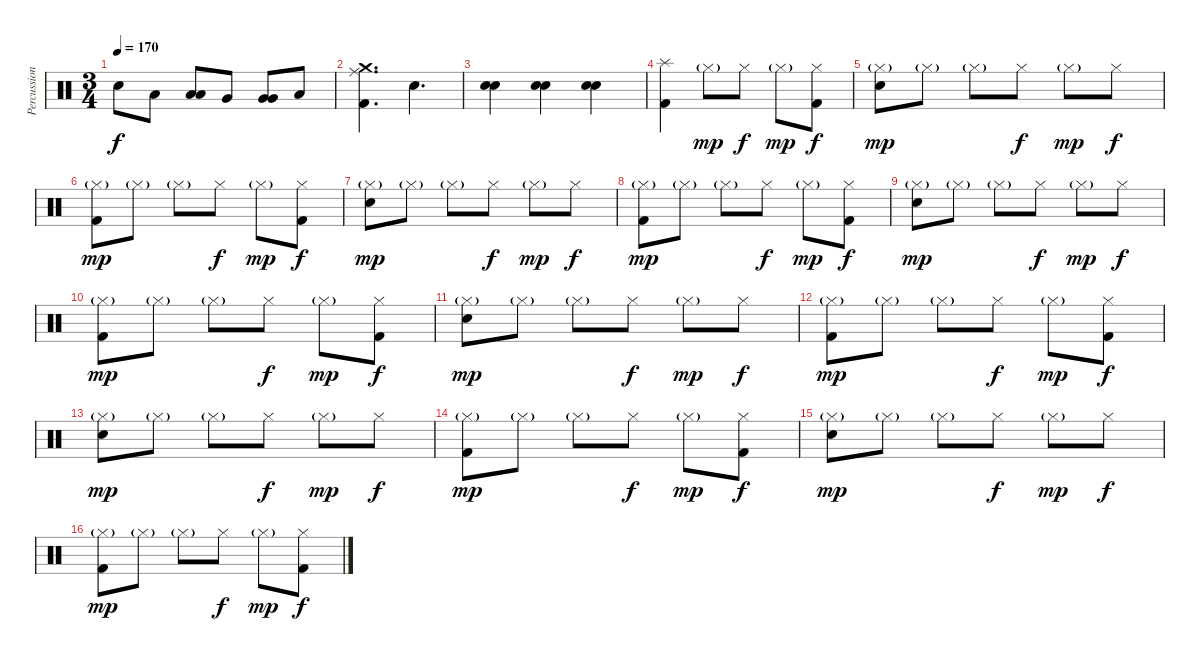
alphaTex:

\track ("Percussion" "Percussion") {instrument percussion}
\staff {score}
\articulation defaults
\ts (3 4)
\tempo 170
\clef neutral
\ks c "Electric Snare (hit)".8{dy f} "Low Tom (hit)".8
("Low Tom (hit)" "Low Tom (hit)").8{bd 240} "Very Low Tom (hit)".8 ("Very Low Tom (hit)" "Very Low Tom (hit)").8{bd 240} "Low Floor Tom (hit)".8 |
("Ride (middle)" "Crash medium (hit)" "Kick (hit) 2").4{d} "Electric Snare (hit)".4{d} |
("Electric Snare (hit)" "Electric Snare (hit)").4{bd 240} ("Electric Snare (hit)" "Electric Snare (hit)").4{bd 240} ("Electric Snare (hit)" "Electric Snare (hit)").4{bd 240} |
("Splash (hit)" "Kick (hit) 2").4 "Hi-Hat (closed)"{g}.8{dy mp} "Hi-Hat (closed)".8{dy f} "Hi-Hat (closed)"{g}.8{dy mp} ("Hi-Hat (closed)" "Kick (hit) 2").8{dy f} |
("Hi-Hat (closed)"{g} "Electric Snare (hit)").8{dy mp} "Hi-Hat (closed)"{g}.8 "Hi-Hat (closed)"{g}.8 "Hi-Hat (closed)".8{dy f} "Hi-Hat (closed)"{g}.8{dy mp} "Hi-Hat (closed)".8{dy f} |
("Hi-Hat (closed)"{g} "Kick (hit) 2").8{dy mp} "Hi-Hat (closed)"{g}.8 "Hi-Hat (closed)"{g}.8 "Hi-Hat (closed)".8{dy f} "Hi-Hat (closed)"{g}.8{dy mp} ("Hi-Hat (closed)" "Kick (hit) 2").8{dy f} |
("Hi-Hat (closed)"{g} "Electric Snare (hit)").8{dy mp} "Hi-Hat (closed)"{g}.8 "Hi-Hat (closed)"{g}.8 "Hi-Hat (closed)".8{dy f} "Hi-Hat (closed)"{g}.8{dy mp} "Hi-Hat (closed)".8{dy f} |
("Hi-Hat (closed)"{g} "Kick (hit) 2").8{dy mp} "Hi-Hat (closed)"{g}.8 "Hi-Hat (closed)"{g}.8 "Hi-Hat (closed)".8{dy f} "Hi-Hat (closed)"{g}.8{dy mp} ("Hi-Hat (closed)" "Kick (hit) 2").8{dy f} |
("Hi-Hat (closed)"{g} "Electric Snare (hit)").8{dy mp} "Hi-Hat (closed)"{g}.8 "Hi-Hat (closed)"{g}.8 "Hi-Hat (closed)".8{dy f} "Hi-Hat (closed)"{g}.8{dy mp} "Hi-Hat (closed)".8{dy f} |
("Hi-Hat (closed)"{g} "Kick (hit) 2").8{dy mp} "Hi-Hat (closed)"{g}.8 "Hi-Hat (closed)"{g}.8 "Hi-Hat (closed)".8{dy f} "Hi-Hat (closed)"{g}.8{dy mp} ("Hi-Hat (closed)" "Kick (hit) 2").8{dy f} |
("Hi-Hat (closed)"{g} "Electric Snare (hit)").8{dy mp} "Hi-Hat (closed)"{g}.8 "Hi-Hat (closed)"{g}.8 "Hi-Hat (closed)".8{dy f} "Hi-Hat (closed)"{g}.8{dy mp} "Hi-Hat (closed)".8{dy f} |
("Hi-Hat (closed)"{g} "Kick (hit) 2").8{dy mp} "Hi-Hat (closed)"{g}.8 "Hi-Hat (closed)"{g}.8 "Hi-Hat (closed)".8{dy f} "Hi-Hat (closed)"{g}.8{dy mp} ("Hi-Hat (closed)" "Kick (hit) 2").8{dy f} |
("Hi-Hat (closed)"{g} "Electric Snare (hit)").8{dy mp} "Hi-Hat (closed)"{g}.8 "Hi-Hat (closed)"{g}.8 "Hi-Hat (closed)".8{dy f} "Hi-Hat (closed)"{g}.8{dy mp} "Hi-Hat (closed)".8{dy f} |
("Hi-Hat (closed)"{g} "Kick (hit) 2").8{dy mp} "Hi-Hat (closed)"{g}.8 "Hi-Hat (closed)"{g}.8 "Hi-Hat (closed)".8{dy f} "Hi-Hat (closed)"{g}.8{dy mp} ("Hi-Hat (closed)" "Kick (hit) 2").8{dy f} |
("Hi-Hat (closed)"{g} "Electric Snare (hit)").8{dy mp} "Hi-Hat (closed)"{g}.8 "Hi-Hat (closed)"{g}.8 "Hi-Hat (closed)".8{dy f} "Hi-Hat (closed)"{g}.8{dy mp} "Hi-Hat (closed)".8{dy f} |
("Hi-Hat (closed)"{g} "Kick (hit) 2").8{dy mp} "Hi-Hat (closed)"{g}.8 "Hi-Hat (closed)"{g}.8 "Hi-Hat (closed)".8{dy f} "Hi-Hat (closed)"{g}.8{dy mp} ("Hi-Hat (closed)" "Kick (hit) 2").8{dy f}
